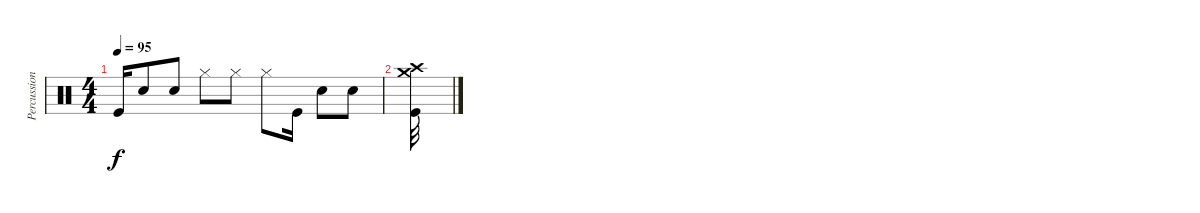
\track ("Percussion" "Percussion") {instrument percussion}
\staff {score}
\articulation defaults
\ts (4 4)
\tempo 95
\clef neutral
\ks c "Kick (hit)".16{dy f} "Snare (hit) 2".8 "Snare (hit) 2".8 "Hi-Hat (closed)".8 "Hi-Hat (closed)".8 "Hi-Hat (closed)".8 "Kick (hit)".16 "Snare (hit) 2".8 "Snare (hit) 2".8
|
("Crash high (hit)" "Crash medium (hit)" "Kick (hit)").32
